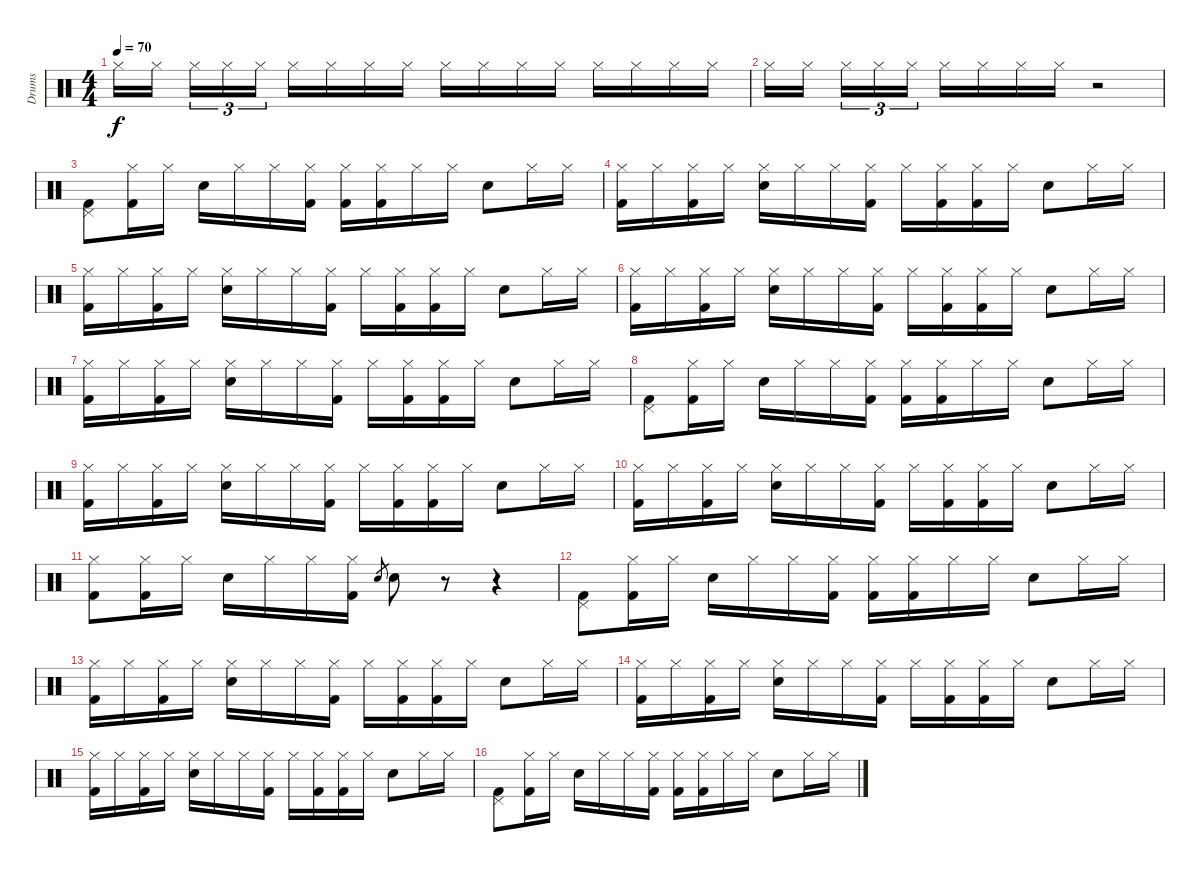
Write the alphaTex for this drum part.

\track ("Drums" "Drums") {instrument percussion}
\staff {score}
\articulation defaults
\ts (4 4)
\tempo 70
\clef neutral
\ks c "Hi-Hat (closed)".16{dy f} "Hi-Hat (closed)".16 "Hi-Hat (closed)".16{tu (3 2)} "Hi-Hat (closed)".16{tu (3 2)} "Hi-Hat (closed)".16{tu (3 2)} "Hi-Hat (closed)".16 "Hi-Hat (closed)".16 "Hi-Hat (closed)".16 "Hi-Hat (closed)".16 "Hi-Hat (closed)".16 "Hi-Hat (closed)".16 "Hi-Hat (closed)".16 "Hi-Hat (closed)".16 "Hi-Hat (closed)".16 "Hi-Hat (closed)".16 "Hi-Hat (closed)".16 "Hi-Hat (closed)".16
|
"Hi-Hat (closed)".16 "Hi-Hat (closed)".16 "Hi-Hat (closed)".16{tu (3 2)} "Hi-Hat (closed)".16{tu (3 2)} "Hi-Hat (closed)".16{tu (3 2)} "Hi-Hat (closed)".16 "Hi-Hat (closed)".16 "Hi-Hat (closed)".16 "Hi-Hat (closed)".16 r.2 |
("Pedal Hi-Hat (hit)" "Kick (hit) 2").8 ("Hi-Hat (closed)" "Kick (hit) 2").16 "Hi-Hat (closed)".16 "Snare (hit) 2".16 "Hi-Hat (closed)".16 "Hi-Hat (closed)".16 ("Hi-Hat (closed)" "Kick (hit) 2").16 ("Hi-Hat (closed)" "Kick (hit) 2").16 ("Hi-Hat (closed)" "Kick (hit) 2").16 "Hi-Hat (closed)".16 "Hi-Hat (closed)".16 "Snare (hit) 2".8 "Hi-Hat (closed)".16 "Hi-Hat (closed)".16 |
("Hi-Hat (closed)" "Kick (hit) 2").16 "Hi-Hat (closed)".16 ("Hi-Hat (closed)" "Kick (hit) 2").16 "Hi-Hat (closed)".16 ("Hi-Hat (closed)" "Snare (hit) 2").16 "Hi-Hat (closed)".16 "Hi-Hat (closed)".16 ("Hi-Hat (closed)" "Kick (hit) 2").16 "Hi-Hat (closed)".16 ("Hi-Hat (closed)" "Kick (hit) 2").16 ("Hi-Hat (closed)" "Kick (hit) 2").16 "Hi-Hat (closed)".16 "Snare (hit) 2".8 "Hi-Hat (closed)".16 "Hi-Hat (closed)".16 |
("Hi-Hat (closed)" "Kick (hit) 2").16 "Hi-Hat (closed)".16 ("Hi-Hat (closed)" "Kick (hit) 2").16 "Hi-Hat (closed)".16 ("Hi-Hat (closed)" "Snare (hit) 2").16 "Hi-Hat (closed)".16 "Hi-Hat (closed)".16 ("Hi-Hat (closed)" "Kick (hit) 2").16 "Hi-Hat (closed)".16 ("Hi-Hat (closed)" "Kick (hit) 2").16 ("Hi-Hat (closed)" "Kick (hit) 2").16 "Hi-Hat (closed)".16 "Snare (hit) 2".8 "Hi-Hat (closed)".16 "Hi-Hat (closed)".16 |
("Hi-Hat (closed)" "Kick (hit) 2").16 "Hi-Hat (closed)".16 ("Hi-Hat (closed)" "Kick (hit) 2").16 "Hi-Hat (closed)".16 ("Hi-Hat (closed)" "Snare (hit) 2").16 "Hi-Hat (closed)".16 "Hi-Hat (closed)".16 ("Hi-Hat (closed)" "Kick (hit) 2").16 "Hi-Hat (closed)".16 ("Hi-Hat (closed)" "Kick (hit) 2").16 ("Hi-Hat (closed)" "Kick (hit) 2").16 "Hi-Hat (closed)".16 "Snare (hit) 2".8 "Hi-Hat (closed)".16 "Hi-Hat (closed)".16 |
("Hi-Hat (closed)" "Kick (hit) 2").16 "Hi-Hat (closed)".16 ("Hi-Hat (closed)" "Kick (hit) 2").16 "Hi-Hat (closed)".16 ("Hi-Hat (closed)" "Snare (hit) 2").16 "Hi-Hat (closed)".16 "Hi-Hat (closed)".16 ("Hi-Hat (closed)" "Kick (hit) 2").16 "Hi-Hat (closed)".16 ("Hi-Hat (closed)" "Kick (hit) 2").16 ("Hi-Hat (closed)" "Kick (hit) 2").16 "Hi-Hat (closed)".16 "Snare (hit) 2".8 "Hi-Hat (closed)".16 "Hi-Hat (closed)".16 |
("Pedal Hi-Hat (hit)" "Kick (hit) 2").8 ("Hi-Hat (closed)" "Kick (hit) 2").16 "Hi-Hat (closed)".16 "Snare (hit) 2".16 "Hi-Hat (closed)".16 "Hi-Hat (closed)".16 ("Hi-Hat (closed)" "Kick (hit) 2").16 ("Hi-Hat (closed)" "Kick (hit) 2").16 ("Hi-Hat (closed)" "Kick (hit) 2").16 "Hi-Hat (closed)".16 "Hi-Hat (closed)".16 "Snare (hit) 2".8 "Hi-Hat (closed)".16 "Hi-Hat (closed)".16 |
("Hi-Hat (closed)" "Kick (hit) 2").16 "Hi-Hat (closed)".16 ("Hi-Hat (closed)" "Kick (hit) 2").16 "Hi-Hat (closed)".16 ("Hi-Hat (closed)" "Snare (hit) 2").16 "Hi-Hat (closed)".16 "Hi-Hat (closed)".16 ("Hi-Hat (closed)" "Kick (hit) 2").16 "Hi-Hat (closed)".16 ("Hi-Hat (closed)" "Kick (hit) 2").16 ("Hi-Hat (closed)" "Kick (hit) 2").16 "Hi-Hat (closed)".16 "Snare (hit) 2".8 "Hi-Hat (closed)".16 "Hi-Hat (closed)".16 |
("Hi-Hat (closed)" "Kick (hit) 2").16 "Hi-Hat (closed)".16 ("Hi-Hat (closed)" "Kick (hit) 2").16 "Hi-Hat (closed)".16 ("Hi-Hat (closed)" "Snare (hit) 2").16 "Hi-Hat (closed)".16 "Hi-Hat (closed)".16 ("Hi-Hat (closed)" "Kick (hit) 2").16 "Hi-Hat (closed)".16 ("Hi-Hat (closed)" "Kick (hit) 2").16 ("Hi-Hat (closed)" "Kick (hit) 2").16 "Hi-Hat (closed)".16 "Snare (hit) 2".8 "Hi-Hat (closed)".16 "Hi-Hat (closed)".16 |
("Hi-Hat (closed)" "Kick (hit) 2").8 ("Hi-Hat (closed)" "Kick (hit) 2").16 "Hi-Hat (closed)".16 "Snare (hit) 2".16 "Hi-Hat (closed)".16 "Hi-Hat (closed)".16 ("Hi-Hat (closed)" "Kick (hit) 2").16 "Snare (hit) 2".8{gr} "Snare (hit) 2".8 r.8 r.4 |
("Pedal Hi-Hat (hit)" "Kick (hit) 2").8 ("Hi-Hat (closed)" "Kick (hit) 2").16 "Hi-Hat (closed)".16 "Snare (hit) 2".16 "Hi-Hat (closed)".16 "Hi-Hat (closed)".16 ("Hi-Hat (closed)" "Kick (hit) 2").16 ("Hi-Hat (closed)" "Kick (hit) 2").16 ("Hi-Hat (closed)" "Kick (hit) 2").16 "Hi-Hat (closed)".16 "Hi-Hat (closed)".16 "Snare (hit) 2".8 "Hi-Hat (closed)".16 "Hi-Hat (closed)".16 |
("Hi-Hat (closed)" "Kick (hit) 2").16 "Hi-Hat (closed)".16 ("Hi-Hat (closed)" "Kick (hit) 2").16 "Hi-Hat (closed)".16 ("Hi-Hat (closed)" "Snare (hit) 2").16 "Hi-Hat (closed)".16 "Hi-Hat (closed)".16 ("Hi-Hat (closed)" "Kick (hit) 2").16 "Hi-Hat (closed)".16 ("Hi-Hat (closed)" "Kick (hit) 2").16 ("Hi-Hat (closed)" "Kick (hit) 2").16 "Hi-Hat (closed)".16 "Snare (hit) 2".8 "Hi-Hat (closed)".16 "Hi-Hat (closed)".16 |
("Hi-Hat (closed)" "Kick (hit) 2").16 "Hi-Hat (closed)".16 ("Hi-Hat (closed)" "Kick (hit) 2").16 "Hi-Hat (closed)".16 ("Hi-Hat (closed)" "Snare (hit) 2").16 "Hi-Hat (closed)".16 "Hi-Hat (closed)".16 ("Hi-Hat (closed)" "Kick (hit) 2").16 "Hi-Hat (closed)".16 ("Hi-Hat (closed)" "Kick (hit) 2").16 ("Hi-Hat (closed)" "Kick (hit) 2").16 "Hi-Hat (closed)".16 "Snare (hit) 2".8 "Hi-Hat (closed)".16 "Hi-Hat (closed)".16 |
("Hi-Hat (closed)" "Kick (hit) 2").16 "Hi-Hat (closed)".16 ("Hi-Hat (closed)" "Kick (hit) 2").16 "Hi-Hat (closed)".16 ("Hi-Hat (closed)" "Snare (hit) 2").16 "Hi-Hat (closed)".16 "Hi-Hat (closed)".16 ("Hi-Hat (closed)" "Kick (hit) 2").16 "Hi-Hat (closed)".16 ("Hi-Hat (closed)" "Kick (hit) 2").16 ("Hi-Hat (closed)" "Kick (hit) 2").16 "Hi-Hat (closed)".16 "Snare (hit) 2".8 "Hi-Hat (closed)".16 "Hi-Hat (closed)".16 |
("Pedal Hi-Hat (hit)" "Kick (hit) 2").8 ("Hi-Hat (closed)" "Kick (hit) 2").16 "Hi-Hat (closed)".16 "Snare (hit) 2".16 "Hi-Hat (closed)".16 "Hi-Hat (closed)".16 ("Hi-Hat (closed)" "Kick (hit) 2").16 ("Hi-Hat (closed)" "Kick (hit) 2").16 ("Hi-Hat (closed)" "Kick (hit) 2").16 "Hi-Hat (closed)".16 "Hi-Hat (closed)".16 "Snare (hit) 2".8 "Hi-Hat (closed)".16 "Hi-Hat (closed)".16
